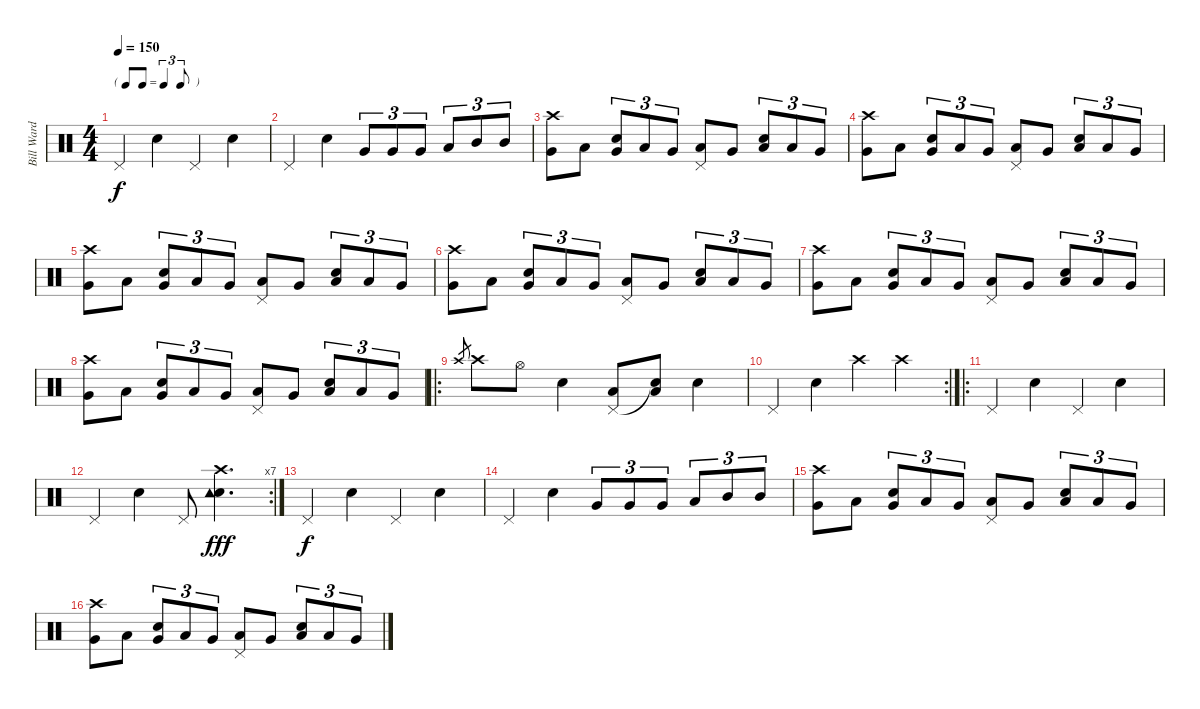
\track ("Bill Ward" "Bill Ward") {instrument percussion}
\staff {score}
\articulation defaults
\ts (4 4)
\tf triplet8th
\tempo 150
\clef neutral
\ks c "Pedal Hi-Hat (hit)".4{dy f} "Snare (hit) 2".4 "Pedal Hi-Hat (hit)".4 "Snare (hit) 2".4
|
"Pedal Hi-Hat (hit)".4 "Snare (hit) 2".4 "Very Low Tom (hit)".8{tu (3 2)} "Very Low Tom (hit)".8{tu (3 2)} "Very Low Tom (hit)".8{tu (3 2)} "Low Tom (hit)".8{tu (3 2)} "Mid Tom (hit)".8{tu (3 2)} "Mid Tom (hit)".8{tu (3 2)} |
("Crash high (hit)" "Very Low Tom (hit)").8 "Low Tom (hit)".8 ("Snare (hit) 2" "Very Low Tom (hit)").8{tu (3 2)} "Low Tom (hit)".8{tu (3 2)} "Very Low Tom (hit)".8{tu (3 2)} ("Pedal Hi-Hat (hit)" "Low Tom (hit)").8 "Very Low Tom (hit)".8 ("Snare (hit) 2" "Low Tom (hit)").8{tu (3 2)} "Low Tom (hit)".8{tu (3 2)} "Very Low Tom (hit)".8{tu (3 2)} |
("Crash high (hit)" "Very Low Tom (hit)").8 "Low Tom (hit)".8 ("Snare (hit) 2" "Very Low Tom (hit)").8{tu (3 2)} "Low Tom (hit)".8{tu (3 2)} "Very Low Tom (hit)".8{tu (3 2)} ("Pedal Hi-Hat (hit)" "Low Tom (hit)").8 "Very Low Tom (hit)".8 ("Snare (hit) 2" "Low Tom (hit)").8{tu (3 2)} "Low Tom (hit)".8{tu (3 2)} "Very Low Tom (hit)".8{tu (3 2)} |
("Crash high (hit)" "Very Low Tom (hit)").8 "Low Tom (hit)".8 ("Snare (hit) 2" "Very Low Tom (hit)").8{tu (3 2)} "Low Tom (hit)".8{tu (3 2)} "Very Low Tom (hit)".8{tu (3 2)} ("Pedal Hi-Hat (hit)" "Low Tom (hit)").8 "Very Low Tom (hit)".8 ("Snare (hit) 2" "Low Tom (hit)").8{tu (3 2)} "Low Tom (hit)".8{tu (3 2)} "Very Low Tom (hit)".8{tu (3 2)} |
("Crash high (hit)" "Very Low Tom (hit)").8 "Low Tom (hit)".8 ("Snare (hit) 2" "Very Low Tom (hit)").8{tu (3 2)} "Low Tom (hit)".8{tu (3 2)} "Very Low Tom (hit)".8{tu (3 2)} ("Pedal Hi-Hat (hit)" "Low Tom (hit)").8 "Very Low Tom (hit)".8 ("Snare (hit) 2" "Low Tom (hit)").8{tu (3 2)} "Low Tom (hit)".8{tu (3 2)} "Very Low Tom (hit)".8{tu (3 2)} |
("Crash high (hit)" "Very Low Tom (hit)").8 "Low Tom (hit)".8 ("Snare (hit) 2" "Very Low Tom (hit)").8{tu (3 2)} "Low Tom (hit)".8{tu (3 2)} "Very Low Tom (hit)".8{tu (3 2)} ("Pedal Hi-Hat (hit)" "Low Tom (hit)").8 "Very Low Tom (hit)".8 ("Snare (hit) 2" "Low Tom (hit)").8{tu (3 2)} "Low Tom (hit)".8{tu (3 2)} "Very Low Tom (hit)".8{tu (3 2)} |
("Crash high (hit)" "Very Low Tom (hit)").8 "Low Tom (hit)".8 ("Snare (hit) 2" "Very Low Tom (hit)").8{tu (3 2)} "Low Tom (hit)".8{tu (3 2)} "Very Low Tom (hit)".8{tu (3 2)} ("Pedal Hi-Hat (hit)" "Low Tom (hit)").8 "Very Low Tom (hit)".8 ("Snare (hit) 2" "Low Tom (hit)").8{tu (3 2)} "Low Tom (hit)".8{tu (3 2)} "Very Low Tom (hit)".8{tu (3 2)} |
\ro "Crash high (hit)".8{gr} "Crash high (hit)".8 "Hi-Hat (open)".8 "Snare (hit) 2".4
("Low Floor Tom (hit)" "Pedal Hi-Hat (hit)").8 ("Low Floor Tom (hit)" "Snare (hit)"{t}).8 "Snare (hit) 2".4 |
\rc 2 "Pedal Hi-Hat (hit)".4 "Snare (hit) 2".4 "Crash high (hit)".4 "Crash high (hit)".4
|
\ro "Pedal Hi-Hat (hit)".4 "Snare (hit) 2".4 "Pedal Hi-Hat (hit)".4 "Snare (hit) 2".4
|
\rc 7 "Pedal Hi-Hat (hit)".4 "Snare (hit) 2".4 "Pedal Hi-Hat (hit)".8
("Snare (hit) 2" "Crash high (hit)" "Tambourine (hit)").4{d dy fff} |
"Pedal Hi-Hat (hit)".4{dy f} "Snare (hit) 2".4 "Pedal Hi-Hat (hit)".4 "Snare (hit) 2".4 |
"Pedal Hi-Hat (hit)".4 "Snare (hit) 2".4 "Very Low Tom (hit)".8{tu (3 2)} "Very Low Tom (hit)".8{tu (3 2)} "Very Low Tom (hit)".8{tu (3 2)} "Low Tom (hit)".8{tu (3 2)} "Mid Tom (hit)".8{tu (3 2)} "Mid Tom (hit)".8{tu (3 2)} |
("Crash high (hit)" "Very Low Tom (hit)").8 "Low Tom (hit)".8 ("Snare (hit) 2" "Very Low Tom (hit)").8{tu (3 2)} "Low Tom (hit)".8{tu (3 2)} "Very Low Tom (hit)".8{tu (3 2)} ("Pedal Hi-Hat (hit)" "Low Tom (hit)").8 "Very Low Tom (hit)".8 ("Snare (hit) 2" "Low Tom (hit)").8{tu (3 2)} "Low Tom (hit)".8{tu (3 2)} "Very Low Tom (hit)".8{tu (3 2)} |
("Crash high (hit)" "Very Low Tom (hit)").8 "Low Tom (hit)".8 ("Snare (hit) 2" "Very Low Tom (hit)").8{tu (3 2)} "Low Tom (hit)".8{tu (3 2)} "Very Low Tom (hit)".8{tu (3 2)} ("Pedal Hi-Hat (hit)" "Low Tom (hit)").8 "Very Low Tom (hit)".8 ("Snare (hit) 2" "Low Tom (hit)").8{tu (3 2)} "Low Tom (hit)".8{tu (3 2)} "Very Low Tom (hit)".8{tu (3 2)}
